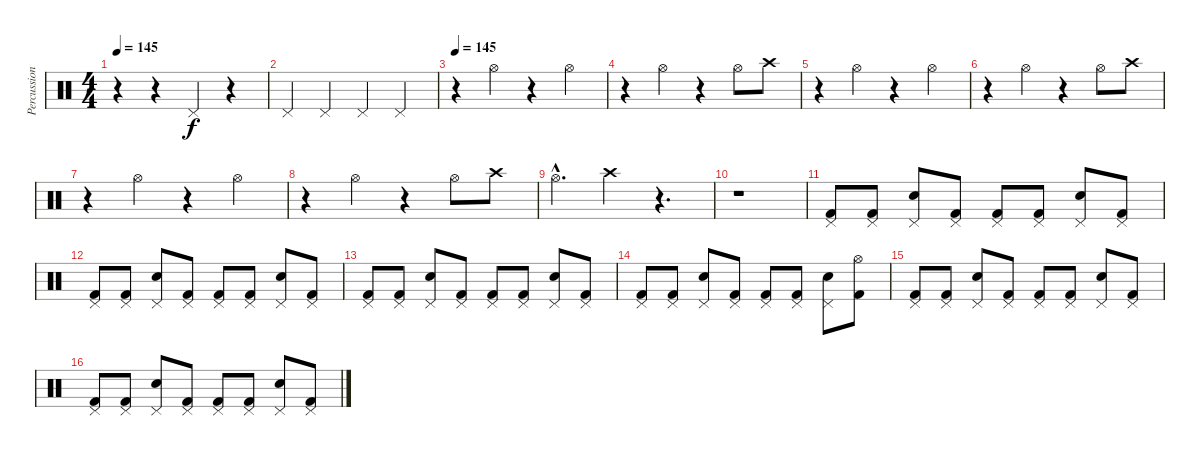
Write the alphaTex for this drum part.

\track ("Percussion" "Percussion") {instrument percussion}
\staff {score}
\articulation defaults
\ts (4 4)
\tempo 145
\clef neutral
\ks c
r.4{dy f} r.4 "Pedal Hi-Hat (hit)".4 r.4 |
"Pedal Hi-Hat (hit)".4 "Pedal Hi-Hat (hit)".4 "Pedal Hi-Hat (hit)".4 "Pedal Hi-Hat (hit)".4 |
\tempo 145
r.4 "Hi-Hat (open)".4 r.4 "Hi-Hat (open)".4 |
r.4 "Hi-Hat (open)".4 r.4 "Hi-Hat (open)".8 "Crash high (hit)".8 |
r.4 "Hi-Hat (open)".4 r.4 "Hi-Hat (open)".4 |
r.4 "Hi-Hat (open)".4 r.4 "Hi-Hat (open)".8 "Crash high (hit)".8 |
r.4 "Hi-Hat (open)".4 r.4 "Hi-Hat (open)".4 |
r.4 "Hi-Hat (open)".4 r.4 "Hi-Hat (open)".8 "Crash high (hit)".8 |
"Hi-Hat (open)"{hac}.4{d} "Crash high (hit)".4 r.4{d} |
r.1 |
("Pedal Hi-Hat (hit)" "Kick (hit) 2").8 ("Pedal Hi-Hat (hit)" "Kick (hit) 2").8 ("Pedal Hi-Hat (hit)" "Electric Snare (hit)").8 ("Pedal Hi-Hat (hit)" "Kick (hit) 2").8 ("Pedal Hi-Hat (hit)" "Kick (hit) 2").8 ("Pedal Hi-Hat (hit)" "Kick (hit) 2").8 ("Pedal Hi-Hat (hit)" "Electric Snare (hit)").8 ("Pedal Hi-Hat (hit)" "Kick (hit) 2").8 |
("Pedal Hi-Hat (hit)" "Kick (hit) 2").8 ("Pedal Hi-Hat (hit)" "Kick (hit) 2").8 ("Pedal Hi-Hat (hit)" "Electric Snare (hit)").8 ("Pedal Hi-Hat (hit)" "Kick (hit) 2").8 ("Pedal Hi-Hat (hit)" "Kick (hit) 2").8 ("Pedal Hi-Hat (hit)" "Kick (hit) 2").8 ("Pedal Hi-Hat (hit)" "Electric Snare (hit)").8 ("Pedal Hi-Hat (hit)" "Kick (hit) 2").8 |
("Pedal Hi-Hat (hit)" "Kick (hit) 2").8 ("Pedal Hi-Hat (hit)" "Kick (hit) 2").8 ("Pedal Hi-Hat (hit)" "Electric Snare (hit)").8 ("Pedal Hi-Hat (hit)" "Kick (hit) 2").8 ("Pedal Hi-Hat (hit)" "Kick (hit) 2").8 ("Pedal Hi-Hat (hit)" "Kick (hit) 2").8 ("Pedal Hi-Hat (hit)" "Electric Snare (hit)").8 ("Pedal Hi-Hat (hit)" "Kick (hit) 2").8 |
("Pedal Hi-Hat (hit)" "Kick (hit) 2").8 ("Pedal Hi-Hat (hit)" "Kick (hit) 2").8 ("Pedal Hi-Hat (hit)" "Electric Snare (hit)").8 ("Pedal Hi-Hat (hit)" "Kick (hit) 2").8 ("Pedal Hi-Hat (hit)" "Kick (hit) 2").8 ("Pedal Hi-Hat (hit)" "Kick (hit) 2").8 ("Pedal Hi-Hat (hit)" "Electric Snare (hit)").8 ("Hi-Hat (open)" "Kick (hit) 2").8 |
("Pedal Hi-Hat (hit)" "Kick (hit) 2").8 ("Pedal Hi-Hat (hit)" "Kick (hit) 2").8 ("Pedal Hi-Hat (hit)" "Electric Snare (hit)").8 ("Pedal Hi-Hat (hit)" "Kick (hit) 2").8 ("Pedal Hi-Hat (hit)" "Kick (hit) 2").8 ("Pedal Hi-Hat (hit)" "Kick (hit) 2").8 ("Pedal Hi-Hat (hit)" "Electric Snare (hit)").8 ("Pedal Hi-Hat (hit)" "Kick (hit) 2").8 |
("Pedal Hi-Hat (hit)" "Kick (hit) 2").8 ("Pedal Hi-Hat (hit)" "Kick (hit) 2").8 ("Pedal Hi-Hat (hit)" "Electric Snare (hit)").8 ("Pedal Hi-Hat (hit)" "Kick (hit) 2").8 ("Pedal Hi-Hat (hit)" "Kick (hit) 2").8 ("Pedal Hi-Hat (hit)" "Kick (hit) 2").8 ("Pedal Hi-Hat (hit)" "Electric Snare (hit)").8 ("Pedal Hi-Hat (hit)" "Kick (hit) 2").8
